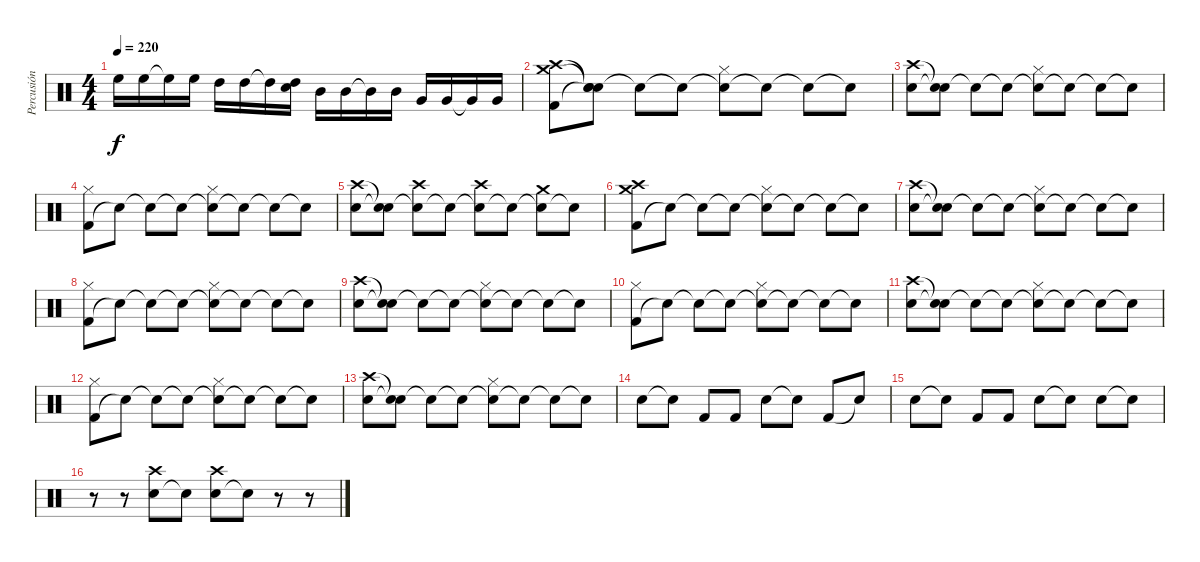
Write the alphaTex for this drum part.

\track ("Percusión" "Percusión") {instrument percussion}
\staff {score}
\articulation defaults
\ts (4 4)
\tempo 220
\clef neutral
\ks c "High Floor Tom (hit)".16{dy f} "High Floor Tom (hit)".16 "High Floor Tom (hit)"{t}.16 "High Floor Tom (hit)".16 "High Tom (hit)".16 "High Tom (hit)".16 "High Tom (hit)"{t}.16
("High Tom (hit)" "Snare (hit)"{t}).16 "Mid Tom (hit)".16 "Mid Tom (hit)".16 "Mid Tom (hit)"{t}.16 "Mid Tom (hit)".16 "Very Low Tom (hit)".16 "Very Low Tom (hit)".16 "Very Low Tom (hit)"{t}.16 "Very Low Tom (hit)".16 |
("Kick (hit) 2" "Crash medium (hit)" "Crash high (hit)").8 ("Snare (hit)"{t} "Snare (hit)"{t} "Snare (hit)"{t}).8 "Snare (hit)"{t}.8 "Snare (hit)"{t}.8 ("Snare (hit) 2"{t} "Hi-Hat (closed)").8 "Snare (hit)"{t}.8 "Snare (hit)"{t}.8 "Snare (hit)"{t}.8 |
("Snare (hit) 2" "Crash high (hit)").8 ("Snare (hit)"{t} "Snare (hit)"{t}).8 "Snare (hit)"{t}.8 "Snare (hit)"{t}.8 ("Snare (hit)"{t} "Hi-Hat (closed)").8 "Snare (hit)"{t}.8 "Snare (hit)"{t}.8 "Snare (hit)"{t}.8 |
("Kick (hit) 2" "Hi-Hat (closed)").8 "Snare (hit)"{t}.8 "Snare (hit)"{t}.8 "Snare (hit)"{t}.8 ("Snare (hit)"{t} "Hi-Hat (closed)").8 "Snare (hit)"{t}.8 "Snare (hit)"{t}.8 "Snare (hit)"{t}.8 |
("Snare (hit) 2" "Crash high (hit)").8 ("Snare (hit)"{t} "Snare (hit)"{t}).8 ("Snare (hit)"{t} "Crash high (hit)").8 "Snare (hit)"{t}.8 ("Snare (hit)"{t} "Crash high (hit)").8 "Snare (hit)"{t}.8 ("Snare (hit)"{t} "Crash medium (hit)").8 "Snare (hit)"{t}.8 |
("Kick (hit) 2" "Crash high (hit)" "Crash medium (hit)").8 "Snare (hit)"{t}.8 "Snare (hit)"{t}.8 "Snare (hit)"{t}.8 ("Snare (hit)"{t} "Hi-Hat (closed)").8 "Snare (hit)"{t}.8 "Snare (hit)"{t}.8 "Snare (hit)"{t}.8 |
("Snare (hit) 2" "Crash high (hit)").8 ("Snare (hit)"{t} "Snare (hit)"{t}).8 "Snare (hit)"{t}.8 "Snare (hit)"{t}.8 ("Snare (hit)"{t} "Hi-Hat (closed)").8 "Snare (hit)"{t}.8 "Snare (hit)"{t}.8 "Snare (hit)"{t}.8 |
("Kick (hit) 2" "Hi-Hat (closed)").8 "Snare (hit)"{t}.8 "Snare (hit)"{t}.8 "Snare (hit)"{t}.8 ("Snare (hit)"{t} "Hi-Hat (closed)").8 "Snare (hit)"{t}.8 "Snare (hit)"{t}.8 "Snare (hit)"{t}.8 |
("Snare (hit) 2" "Crash high (hit)").8 ("Snare (hit)"{t} "Snare (hit)"{t}).8 "Snare (hit)"{t}.8 "Snare (hit)"{t}.8 ("Snare (hit)"{t} "Hi-Hat (closed)").8 "Snare (hit)"{t}.8 "Snare (hit)"{t}.8 "Snare (hit)"{t}.8 |
("Kick (hit) 2" "Hi-Hat (closed)").8 "Snare (hit)"{t}.8 "Snare (hit)"{t}.8 "Snare (hit)"{t}.8 ("Snare (hit)"{t} "Hi-Hat (closed)").8 "Snare (hit)"{t}.8 "Snare (hit)"{t}.8 "Snare (hit)"{t}.8 |
("Snare (hit) 2" "Crash high (hit)").8 ("Snare (hit)"{t} "Snare (hit)"{t}).8 "Snare (hit)"{t}.8 "Snare (hit)"{t}.8 ("Snare (hit)"{t} "Hi-Hat (closed)").8 "Snare (hit)"{t}.8 "Snare (hit)"{t}.8 "Snare (hit)"{t}.8 |
("Kick (hit) 2" "Hi-Hat (closed)").8 "Snare (hit)"{t}.8 "Snare (hit)"{t}.8 "Snare (hit)"{t}.8 ("Snare (hit)"{t} "Hi-Hat (closed)").8 "Snare (hit)"{t}.8 "Snare (hit)"{t}.8 "Snare (hit)"{t}.8 |
("Snare (hit) 2" "Crash high (hit)").8 ("Snare (hit)"{t} "Snare (hit)"{t}).8 "Snare (hit)"{t}.8 "Snare (hit)"{t}.8 ("Snare (hit)"{t} "Hi-Hat (closed)").8 "Snare (hit)"{t}.8 "Snare (hit)"{t}.8 "Snare (hit)"{t}.8 |
"Snare (hit) 2".8 "Snare (hit)"{t}.8 "Kick (hit) 2".8 "Kick (hit) 2".8 "Snare (hit) 2".8 "Snare (hit)"{t}.8 "Kick (hit) 2".8 "Snare (hit)"{t}.8 |
"Snare (hit) 2".8 "Snare (hit)"{t}.8 "Kick (hit) 2".8 "Kick (hit) 2".8 "Snare (hit) 2".8 "Snare (hit)"{t}.8 "Snare (hit) 2".8 "Snare (hit)"{t}.8 |
r.8 r.8 ("Snare (hit) 2" "Crash high (hit)").8 "Snare (hit) 2"{t}.8 ("Snare (hit) 2" "Crash high (hit)").8 "Snare (hit)"{t}.8 r.8 r.8
